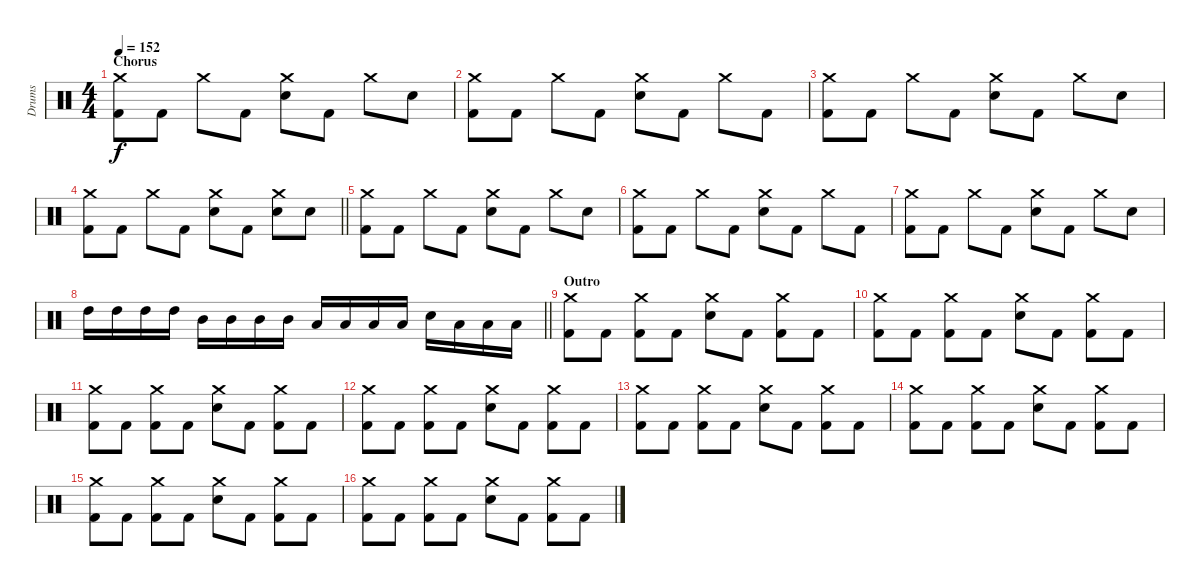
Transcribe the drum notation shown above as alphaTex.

\track ("Drums" "Drums") {instrument percussion}
\staff {score}
\articulation defaults
\ts (4 4)
\section ("" "Chorus")
\tempo 152
\clef neutral
\ks c
("Crash medium (hit)" "Kick (hit) 2").8{dy f} "Kick (hit) 2".8 "Crash medium (hit)".8 "Kick (hit) 2".8 ("Crash medium (hit)" "Electric Snare (hit)").8 "Kick (hit) 2".8 "Crash medium (hit)".8 "Electric Snare (hit)".8 |
("Crash medium (hit)" "Kick (hit) 2").8 "Kick (hit) 2".8 "Crash medium (hit)".8 "Kick (hit) 2".8 ("Crash medium (hit)" "Electric Snare (hit)").8 "Kick (hit) 2".8 "Crash medium (hit)".8 "Kick (hit) 2".8 |
("Crash medium (hit)" "Kick (hit) 2").8 "Kick (hit) 2".8 "Crash medium (hit)".8 "Kick (hit) 2".8 ("Crash medium (hit)" "Electric Snare (hit)").8 "Kick (hit) 2".8 "Crash medium (hit)".8 "Electric Snare (hit)".8 |
\barLineRight lightlight
("Crash medium (hit)" "Kick (hit) 2").8 "Kick (hit) 2".8 "Crash medium (hit)".8 "Kick (hit) 2".8 ("Crash medium (hit)" "Electric Snare (hit)").8 "Kick (hit) 2".8 ("Crash medium (hit)" "Electric Snare (hit)").8 "Electric Snare (hit)".8 |
("Crash medium (hit)" "Kick (hit) 2").8 "Kick (hit) 2".8 "Crash medium (hit)".8 "Kick (hit) 2".8 ("Crash medium (hit)" "Electric Snare (hit)").8 "Kick (hit) 2".8 "Crash medium (hit)".8 "Electric Snare (hit)".8 |
("Crash medium (hit)" "Kick (hit) 2").8 "Kick (hit) 2".8 "Crash medium (hit)".8 "Kick (hit) 2".8 ("Crash medium (hit)" "Electric Snare (hit)").8 "Kick (hit) 2".8 "Crash medium (hit)".8 "Kick (hit) 2".8 |
("Crash medium (hit)" "Kick (hit) 2").8 "Kick (hit) 2".8 "Crash medium (hit)".8 "Kick (hit) 2".8 ("Crash medium (hit)" "Electric Snare (hit)").8 "Kick (hit) 2".8 "Crash medium (hit)".8 "Electric Snare (hit)".8 |
\barLineRight lightlight "High Tom (hit)".16 "High Tom (hit)".16 "High Tom (hit)".16 "High Tom (hit)".16 "Mid Tom (hit)".16 "Mid Tom (hit)".16 "Mid Tom (hit)".16 "Mid Tom (hit)".16 "Low Tom (hit)".16 "Low Tom (hit)".16 "Low Tom (hit)".16 "Low Tom (hit)".16 "Electric Snare (hit)".16 "Low Tom (hit)".16 "Low Tom (hit)".16 "Low Tom (hit)".16
|
\section ("" "Outro")
("Crash medium (hit)" "Kick (hit) 2").8 "Kick (hit) 2".8 ("Crash medium (hit)" "Kick (hit) 2").8 "Kick (hit) 2".8 ("Crash medium (hit)" "Electric Snare (hit)").8 "Kick (hit) 2".8 ("Crash medium (hit)" "Kick (hit) 2").8 "Kick (hit) 2".8 |
("Crash medium (hit)" "Kick (hit) 2").8 "Kick (hit) 2".8 ("Crash medium (hit)" "Kick (hit) 2").8 "Kick (hit) 2".8 ("Crash medium (hit)" "Electric Snare (hit)").8 "Kick (hit) 2".8 ("Crash medium (hit)" "Kick (hit) 2").8 "Kick (hit) 2".8 |
("Crash medium (hit)" "Kick (hit) 2").8 "Kick (hit) 2".8 ("Crash medium (hit)" "Kick (hit) 2").8 "Kick (hit) 2".8 ("Crash medium (hit)" "Electric Snare (hit)").8 "Kick (hit) 2".8 ("Crash medium (hit)" "Kick (hit) 2").8 "Kick (hit) 2".8 |
("Crash medium (hit)" "Kick (hit) 2").8 "Kick (hit) 2".8 ("Crash medium (hit)" "Kick (hit) 2").8 "Kick (hit) 2".8 ("Crash medium (hit)" "Electric Snare (hit)").8 "Kick (hit) 2".8 ("Crash medium (hit)" "Kick (hit) 2").8 "Kick (hit) 2".8 |
("Crash medium (hit)" "Kick (hit) 2").8 "Kick (hit) 2".8 ("Crash medium (hit)" "Kick (hit) 2").8 "Kick (hit) 2".8 ("Crash medium (hit)" "Electric Snare (hit)").8 "Kick (hit) 2".8 ("Crash medium (hit)" "Kick (hit) 2").8 "Kick (hit) 2".8 |
("Crash medium (hit)" "Kick (hit) 2").8 "Kick (hit) 2".8 ("Crash medium (hit)" "Kick (hit) 2").8 "Kick (hit) 2".8 ("Crash medium (hit)" "Electric Snare (hit)").8 "Kick (hit) 2".8 ("Crash medium (hit)" "Kick (hit) 2").8 "Kick (hit) 2".8 |
("Crash medium (hit)" "Kick (hit) 2").8 "Kick (hit) 2".8 ("Crash medium (hit)" "Kick (hit) 2").8 "Kick (hit) 2".8 ("Crash medium (hit)" "Electric Snare (hit)").8 "Kick (hit) 2".8 ("Crash medium (hit)" "Kick (hit) 2").8 "Kick (hit) 2".8 |
("Crash medium (hit)" "Kick (hit) 2").8 "Kick (hit) 2".8 ("Crash medium (hit)" "Kick (hit) 2").8 "Kick (hit) 2".8 ("Crash medium (hit)" "Electric Snare (hit)").8 "Kick (hit) 2".8 ("Crash medium (hit)" "Kick (hit) 2").8 "Kick (hit) 2".8
